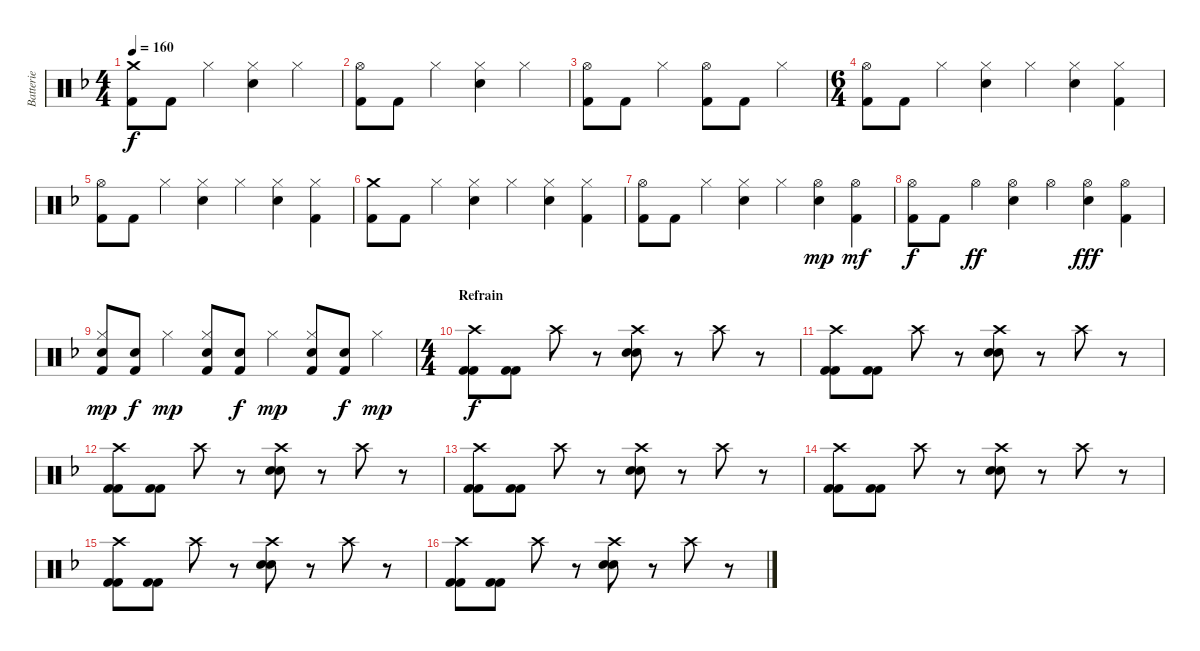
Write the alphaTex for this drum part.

\track ("Batterie" "Batterie") {instrument percussion}
\staff {score}
\articulation defaults
\ts (4 4)
\tempo 160
\clef neutral
\ks f
("Crash medium (hit)" "Kick (hit) 2").8{dy f} "Kick (hit) 2".8 "Hi-Hat (closed)".4 ("Hi-Hat (closed)" "Electric Snare (hit)").4 "Hi-Hat (closed)".4 |
("Hi-Hat (open)" "Kick (hit) 2").8 "Kick (hit) 2".8 "Hi-Hat (closed)".4 ("Hi-Hat (closed)" "Electric Snare (hit)").4 "Hi-Hat (closed)".4 |
("Hi-Hat (open)" "Kick (hit) 2").8 "Kick (hit) 2".8 "Hi-Hat (closed)".4 ("Hi-Hat (open)" "Kick (hit) 2").8 "Kick (hit) 2".8 "Hi-Hat (closed)".4 |
\ts (6 4)
("Hi-Hat (open)" "Kick (hit) 2").8 "Kick (hit) 2".8 "Hi-Hat (closed)".4 ("Hi-Hat (closed)" "Electric Snare (hit)").4 "Hi-Hat (closed)".4 ("Hi-Hat (closed)" "Electric Snare (hit)").4 ("Hi-Hat (closed)" "Kick (hit) 2").4 |
("Hi-Hat (open)" "Kick (hit) 2").8 "Kick (hit) 2".8 "Hi-Hat (closed)".4 ("Hi-Hat (closed)" "Electric Snare (hit)").4 "Hi-Hat (closed)".4 ("Hi-Hat (closed)" "Electric Snare (hit)").4 ("Hi-Hat (closed)" "Kick (hit) 2").4 |
("Crash medium (hit)" "Kick (hit) 2").8 "Kick (hit) 2".8 "Hi-Hat (closed)".4 ("Hi-Hat (closed)" "Electric Snare (hit)").4 "Hi-Hat (closed)".4 ("Hi-Hat (closed)" "Electric Snare (hit)").4 ("Hi-Hat (closed)" "Kick (hit) 2").4 |
("Hi-Hat (open)" "Kick (hit) 2").8 "Kick (hit) 2".8 "Hi-Hat (closed)".4 ("Hi-Hat (closed)" "Electric Snare (hit)").4 "Hi-Hat (closed)".4 ("Hi-Hat (open)" "Electric Snare (hit)").4{dy mp} ("Hi-Hat (open)" "Kick (hit) 2").4{dy mf} |
("Hi-Hat (open)" "Kick (hit) 2").8{dy f} "Kick (hit) 2".8 "Hi-Hat (open)".4{dy ff} ("Hi-Hat (open)" "Electric Snare (hit)").4 "Hi-Hat (open)".4 ("Hi-Hat (open)" "Electric Snare (hit)").4{dy fff} ("Hi-Hat (open)" "Kick (hit) 2").4 |
("Hi-Hat (closed)" "Electric Snare (hit)" "Kick (hit) 2").8{dy mp} ("Electric Snare (hit)" "Kick (hit) 2").8{dy f} "Hi-Hat (closed)".4{dy mp} ("Hi-Hat (closed)" "Electric Snare (hit)" "Kick (hit) 2").8 ("Electric Snare (hit)" "Kick (hit) 2").8{dy f} "Hi-Hat (closed)".4{dy mp} ("Hi-Hat (closed)" "Electric Snare (hit)" "Kick (hit) 2").8 ("Electric Snare (hit)" "Kick (hit) 2").8{dy f} "Hi-Hat (closed)".4{dy mp} |
\ts (4 4)
\section ("" "Refrain")
("Crash high (hit)" "Kick (hit) 2" "Kick (hit) 2").8{dy f} ("Kick (hit) 2" "Kick (hit) 2").8 "Crash high (hit)".8 r.8 ("Crash high (hit)" "Electric Snare (hit)" "Electric Snare (hit)").8 r.8 "Crash high (hit)".8 r.8 |
("Crash high (hit)" "Kick (hit) 2" "Kick (hit) 2").8 ("Kick (hit) 2" "Kick (hit) 2").8 "Crash high (hit)".8 r.8 ("Crash high (hit)" "Electric Snare (hit)" "Electric Snare (hit)").8 r.8 "Crash high (hit)".8 r.8 |
("Crash high (hit)" "Kick (hit) 2" "Kick (hit) 2").8 ("Kick (hit) 2" "Kick (hit) 2").8 "Crash high (hit)".8 r.8 ("Crash high (hit)" "Electric Snare (hit)" "Electric Snare (hit)").8 r.8 "Crash high (hit)".8 r.8 |
("Crash high (hit)" "Kick (hit) 2" "Kick (hit) 2").8 ("Kick (hit) 2" "Kick (hit) 2").8 "Crash high (hit)".8 r.8 ("Crash high (hit)" "Electric Snare (hit)" "Electric Snare (hit)").8 r.8 "Crash high (hit)".8 r.8 |
("Crash high (hit)" "Kick (hit) 2" "Kick (hit) 2").8 ("Kick (hit) 2" "Kick (hit) 2").8 "Crash high (hit)".8 r.8 ("Crash high (hit)" "Electric Snare (hit)" "Electric Snare (hit)").8 r.8 "Crash high (hit)".8 r.8 |
("Crash high (hit)" "Kick (hit) 2" "Kick (hit) 2").8 ("Kick (hit) 2" "Kick (hit) 2").8 "Crash high (hit)".8 r.8 ("Crash high (hit)" "Electric Snare (hit)" "Electric Snare (hit)").8 r.8 "Crash high (hit)".8 r.8 |
("Crash high (hit)" "Kick (hit) 2" "Kick (hit) 2").8 ("Kick (hit) 2" "Kick (hit) 2").8 "Crash high (hit)".8 r.8 ("Crash high (hit)" "Electric Snare (hit)" "Electric Snare (hit)").8 r.8 "Crash high (hit)".8 r.8
